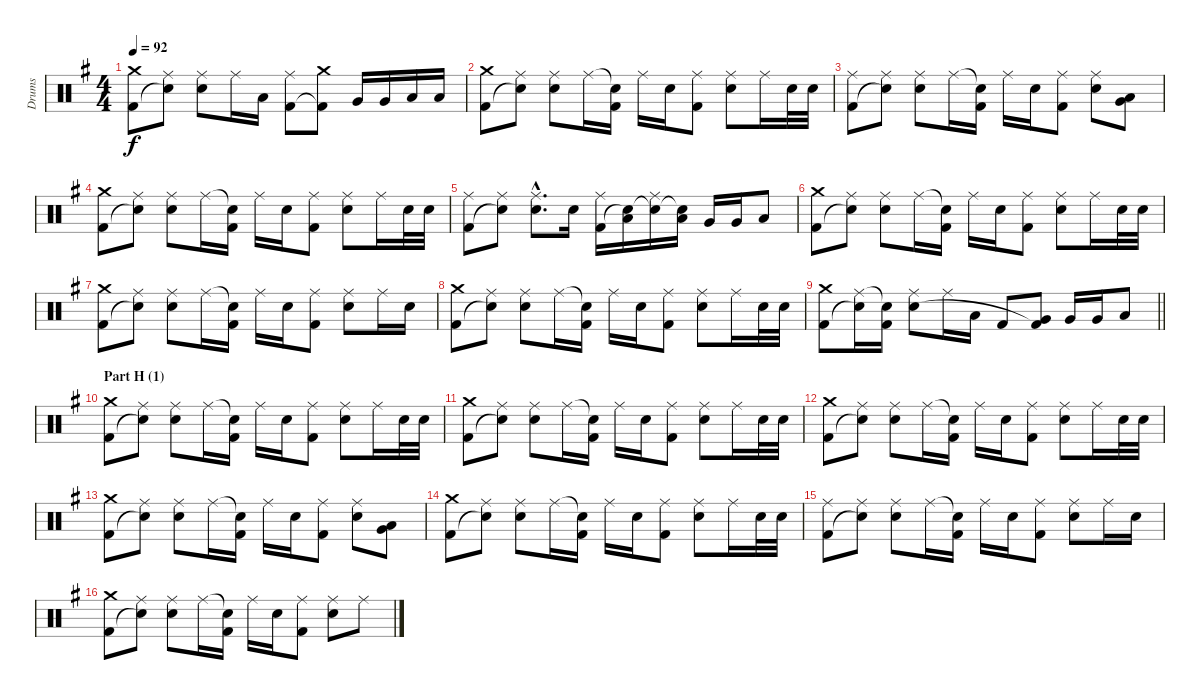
\track ("Drums" "Drums") {instrument percussion}
\staff {score}
\articulation defaults
\ts (4 4)
\tempo 92
\clef neutral
\ks g
("Crash medium (hit)" "Kick (hit) 2").8{dy f} ("Ride (middle)" "Snare (hit)"{t}).8 ("Ride (middle)" "Electric Snare (hit)").8 "Ride (middle)".16 "Low Tom (hit)".16 ("Ride (middle)" "Kick (hit) 2").8 ("Crash medium (hit)" "Kick (hit) 2"{t}).8 "Very Low Tom (hit)".16 "Very Low Tom (hit)".16 "Low Floor Tom (hit)".16 "Low Floor Tom (hit)".16 |
("Crash medium (hit)" "Kick (hit) 2").8 ("Ride (middle)" "Snare (hit)"{t}).8 ("Ride (middle)" "Electric Snare (hit)").8 "Ride (middle)".16 ("Snare (hit)"{t} "Kick (hit) 2").16 "Ride (middle)".16 "Electric Snare (hit)".16 ("Ride (middle)" "Kick (hit) 2").8 ("Ride (middle)" "Electric Snare (hit)").8 "Ride (middle)".16 "Electric Snare (hit)".32 "Electric Snare (hit)".32 |
("Ride (middle)" "Kick (hit) 2").8 ("Ride (middle)" "Snare (hit)"{t}).8 ("Ride (middle)" "Electric Snare (hit)").8 "Ride (middle)".16 ("Snare (hit)"{t} "Kick (hit) 2").16 "Ride (middle)".16 "Electric Snare (hit)".16 ("Ride (middle)" "Kick (hit) 2").8 ("Ride (middle)" "Electric Snare (hit)").8 ("Low Tom (hit)" "Very Low Tom (hit)").8 |
("Crash medium (hit)" "Kick (hit) 2").8 ("Ride (middle)" "Snare (hit)"{t}).8 ("Ride (middle)" "Electric Snare (hit)").8 "Ride (middle)".16 ("Snare (hit)"{t} "Kick (hit) 2").16 "Ride (middle)".16 "Electric Snare (hit)".16 ("Ride (middle)" "Kick (hit) 2").8 ("Ride (middle)" "Electric Snare (hit)").8 "Ride (middle)".16 "Electric Snare (hit)".32 "Electric Snare (hit)".32 |
("Ride (middle)" "Kick (hit) 2").8 ("Ride (middle)" "Snare (hit)"{t}).8 ("Ride (middle)"{hac} "Electric Snare (hit)"{hac}).8{d} "Electric Snare (hit)".16 ("Ride (middle)" "Kick (hit) 2").16 ("Low Tom (hit)" "Snare (hit)"{t}).16 ("Ride (middle)" "Snare (hit)"{t}).16 ("Low Tom (hit)" "Snare (hit)"{t}).16 "Very Low Tom (hit)".16 "Very Low Tom (hit)".16 "Low Floor Tom (hit)".8 |
("Crash medium (hit)" "Kick (hit) 2").8 ("Ride (middle)" "Snare (hit)"{t}).8 ("Ride (middle)" "Electric Snare (hit)").8 "Ride (middle)".16 ("Snare (hit)"{t} "Kick (hit) 2").16 "Ride (middle)".16 "Electric Snare (hit)".16 ("Ride (middle)" "Kick (hit) 2").8 ("Ride (middle)" "Electric Snare (hit)").8 "Ride (middle)".16 "Electric Snare (hit)".32 "Electric Snare (hit)".32 |
("Crash medium (hit)" "Kick (hit) 2").8 ("Ride (middle)" "Snare (hit)"{t}).8 ("Ride (middle)" "Electric Snare (hit)").8 "Ride (middle)".16 ("Snare (hit)"{t} "Kick (hit) 2").16 "Ride (middle)".16 "Electric Snare (hit)".16 ("Ride (middle)" "Kick (hit) 2").8 ("Ride (middle)" "Electric Snare (hit)").8 "Ride (middle)".16 "Electric Snare (hit)".16 |
("Crash medium (hit)" "Kick (hit) 2").8 ("Ride (middle)" "Snare (hit)"{t}).8 ("Ride (middle)" "Electric Snare (hit)").8 "Ride (middle)".16 ("Snare (hit)"{t} "Kick (hit) 2").16 "Ride (middle)".16 "Electric Snare (hit)".16 ("Ride (middle)" "Kick (hit) 2").8 ("Ride (middle)" "Electric Snare (hit)").8 "Ride (middle)".16 "Electric Snare (hit)".32 "Electric Snare (hit)".32 |
\barLineRight lightlight
("Crash medium (hit)" "Kick (hit) 2").8 ("Ride (middle)" "Snare (hit)"{t}).16 ("Snare (hit)"{t} "Kick (hit) 2").16 ("Ride (middle)" "Electric Snare (hit)").8 "Ride (middle)".16 "Low Tom (hit)".16 "Kick (hit) 2".8 ("Very Low Tom (hit)" "Kick (hit) 2"{t}).8 "Very Low Tom (hit)".16 "Very Low Tom (hit)".16 "Low Floor Tom (hit)".8 |
\section ("" "Part H (1)")
("Crash medium (hit)" "Kick (hit) 2").8 ("Ride (middle)" "Snare (hit)"{t}).8 ("Ride (middle)" "Electric Snare (hit)").8 "Ride (middle)".16 ("Snare (hit)"{t} "Kick (hit) 2").16 "Ride (middle)".16 "Electric Snare (hit)".16 ("Ride (middle)" "Kick (hit) 2").8 ("Ride (middle)" "Electric Snare (hit)").8 "Ride (middle)".16 "Electric Snare (hit)".32 "Electric Snare (hit)".32 |
("Crash medium (hit)" "Kick (hit) 2").8 ("Ride (middle)" "Snare (hit)"{t}).8 ("Ride (middle)" "Electric Snare (hit)").8 "Ride (middle)".16 ("Snare (hit)"{t} "Kick (hit) 2").16 "Ride (middle)".16 "Electric Snare (hit)".16 ("Ride (middle)" "Kick (hit) 2").8 ("Ride (middle)" "Electric Snare (hit)").8 "Ride (middle)".16 "Electric Snare (hit)".32 "Electric Snare (hit)".32 |
("Crash medium (hit)" "Kick (hit) 2").8 ("Ride (middle)" "Snare (hit)"{t}).8 ("Ride (middle)" "Electric Snare (hit)").8 "Ride (middle)".16 ("Snare (hit)"{t} "Kick (hit) 2").16 "Ride (middle)".16 "Electric Snare (hit)".16 ("Ride (middle)" "Kick (hit) 2").8 ("Ride (middle)" "Electric Snare (hit)").8 "Ride (middle)".16 "Electric Snare (hit)".32 "Electric Snare (hit)".32 |
("Crash medium (hit)" "Kick (hit) 2").8 ("Ride (middle)" "Snare (hit)"{t}).8 ("Ride (middle)" "Electric Snare (hit)").8 "Ride (middle)".16 ("Snare (hit)"{t} "Kick (hit) 2").16 "Ride (middle)".16 "Electric Snare (hit)".16 ("Ride (middle)" "Kick (hit) 2").8 ("Ride (middle)" "Electric Snare (hit)").8 ("Low Tom (hit)" "Very Low Tom (hit)").8 |
("Crash medium (hit)" "Kick (hit) 2").8 ("Ride (middle)" "Snare (hit)"{t}).8 ("Ride (middle)" "Electric Snare (hit)").8 "Ride (middle)".16 ("Snare (hit)"{t} "Kick (hit) 2").16 "Ride (middle)".16 "Electric Snare (hit)".16 ("Ride (middle)" "Kick (hit) 2").8 ("Ride (middle)" "Electric Snare (hit)").8 "Ride (middle)".16 "Electric Snare (hit)".32 "Electric Snare (hit)".32 |
("Ride (middle)" "Kick (hit) 2").8 ("Ride (middle)" "Snare (hit)"{t}).8 ("Ride (middle)" "Electric Snare (hit)").8 "Ride (middle)".16 ("Snare (hit)"{t} "Kick (hit) 2").16 "Ride (middle)".16 "Electric Snare (hit)".16 ("Ride (middle)" "Kick (hit) 2").8 ("Ride (middle)" "Electric Snare (hit)").8 "Ride (middle)".16 "Electric Snare (hit)".16 |
("Crash medium (hit)" "Kick (hit) 2").8 ("Ride (middle)" "Snare (hit)"{t}).8 ("Ride (middle)" "Electric Snare (hit)").8 "Ride (middle)".16 ("Snare (hit)"{t} "Kick (hit) 2").16 "Ride (middle)".16 "Electric Snare (hit)".16 ("Ride (middle)" "Kick (hit) 2").8 ("Ride (middle)" "Electric Snare (hit)").8 "Ride (middle)".8
